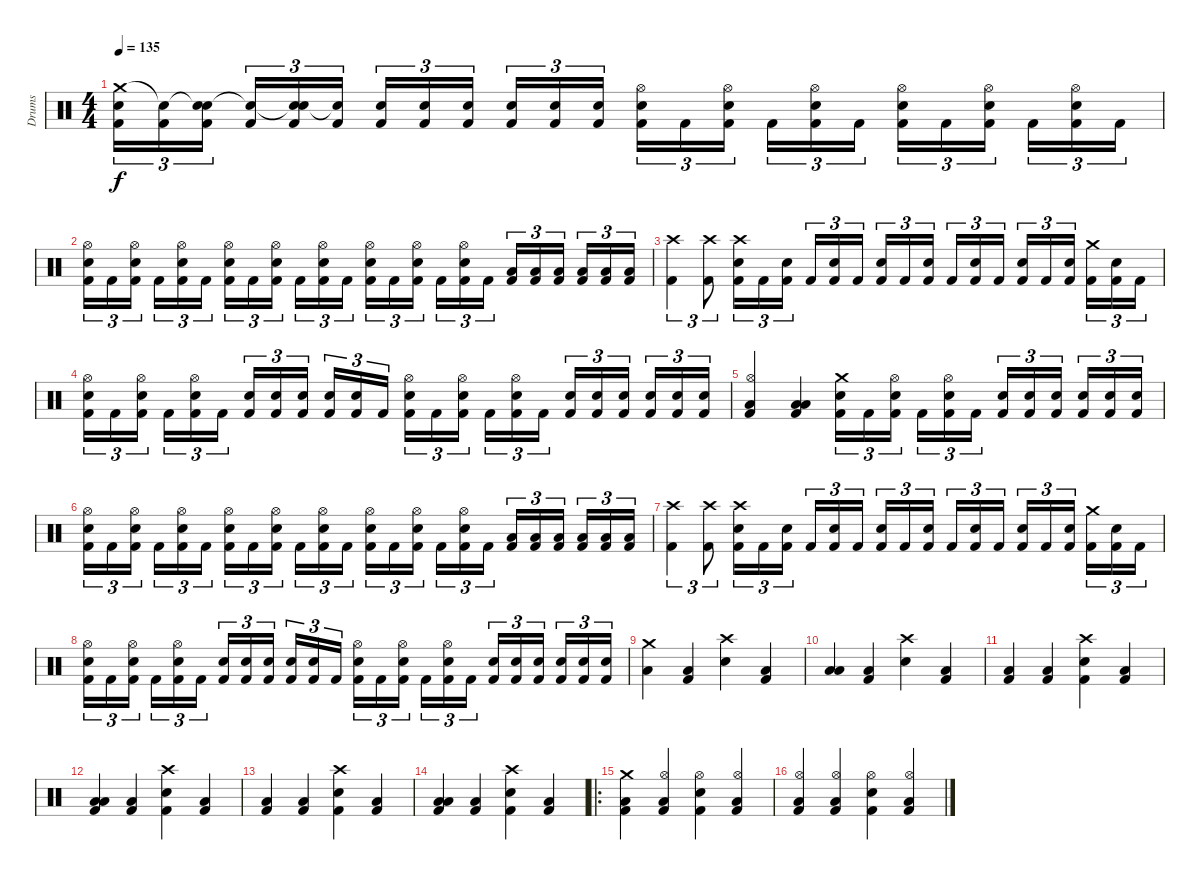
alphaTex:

\track ("Drums" "Drums") {instrument percussion}
\staff {score}
\articulation defaults
\ts (4 4)
\tempo 135
\clef neutral
\ks c
("Crash medium (hit)" "Electric Snare (hit)" "Kick (hit) 2").16{tu (3 2) dy f} ("Snare (hit)"{t} "Kick (hit) 2").16{tu (3 2)} ("Snare (hit)"{t} "Electric Snare (hit)" "Kick (hit) 2").16{tu (3 2)} ("Snare (hit)"{t} "Kick (hit) 2").16{tu (3 2)} ("Snare (hit)"{t} "Electric Snare (hit)" "Kick (hit) 2").16{tu (3 2)} ("Snare (hit)"{t} "Kick (hit) 2").16{tu (3 2)} ("Electric Snare (hit)" "Kick (hit) 2").16{tu (3 2)} ("Electric Snare (hit)" "Kick (hit) 2").16{tu (3 2)} ("Electric Snare (hit)" "Kick (hit) 2").16{tu (3 2)} ("Electric Snare (hit)" "Kick (hit) 2").16{tu (3 2)} ("Electric Snare (hit)" "Kick (hit) 2").16{tu (3 2)} ("Electric Snare (hit)" "Kick (hit) 2").16{tu (3 2)} ("Hi-Hat (open)" "Electric Snare (hit)" "Kick (hit) 2").16{tu (3 2)} "Kick (hit) 2".16{tu (3 2)} ("Hi-Hat (open)" "Electric Snare (hit)" "Kick (hit) 2").16{tu (3 2)} "Kick (hit) 2".16{tu (3 2)} ("Hi-Hat (open)" "Electric Snare (hit)" "Kick (hit) 2").16{tu (3 2)} "Kick (hit) 2".16{tu (3 2)} ("Hi-Hat (open)" "Electric Snare (hit)" "Kick (hit) 2").16{tu (3 2)} "Kick (hit) 2".16{tu (3 2)} ("Hi-Hat (open)" "Electric Snare (hit)" "Kick (hit) 2").16{tu (3 2)} "Kick (hit) 2".16{tu (3 2)} ("Hi-Hat (open)" "Electric Snare (hit)" "Kick (hit) 2").16{tu (3 2)} "Kick (hit) 2".16{tu (3 2)} |
("Hi-Hat (open)" "Electric Snare (hit)" "Kick (hit) 2").16{tu (3 2)} "Kick (hit) 2".16{tu (3 2)} ("Hi-Hat (open)" "Electric Snare (hit)" "Kick (hit) 2").16{tu (3 2)} "Kick (hit) 2".16{tu (3 2)} ("Hi-Hat (open)" "Electric Snare (hit)" "Kick (hit) 2").16{tu (3 2)} "Kick (hit) 2".16{tu (3 2)} ("Hi-Hat (open)" "Electric Snare (hit)" "Kick (hit) 2").16{tu (3 2)} "Kick (hit) 2".16{tu (3 2)} ("Hi-Hat (open)" "Electric Snare (hit)" "Kick (hit) 2").16{tu (3 2)} "Kick (hit) 2".16{tu (3 2)} ("Hi-Hat (open)" "Electric Snare (hit)" "Kick (hit) 2").16{tu (3 2)} "Kick (hit) 2".16{tu (3 2)} ("Hi-Hat (open)" "Electric Snare (hit)" "Kick (hit) 2").16{tu (3 2)} "Kick (hit) 2".16{tu (3 2)} ("Hi-Hat (open)" "Electric Snare (hit)" "Kick (hit) 2").16{tu (3 2)} "Kick (hit) 2".16{tu (3 2)} ("Hi-Hat (open)" "Electric Snare (hit)" "Kick (hit) 2").16{tu (3 2)} "Kick (hit) 2".16{tu (3 2)} ("Low Floor Tom (hit)" "Kick (hit) 2").16{tu (3 2)} ("Low Floor Tom (hit)" "Kick (hit) 2").16{tu (3 2)} ("Low Floor Tom (hit)" "Kick (hit) 2").16{tu (3 2)} ("Low Floor Tom (hit)" "Kick (hit) 2").16{tu (3 2)} ("Low Floor Tom (hit)" "Kick (hit) 2").16{tu (3 2)} ("Low Floor Tom (hit)" "Kick (hit) 2").16{tu (3 2)} |
("Crash high (hit)" "Kick (hit) 2").4{tu (3 2)} ("Crash high (hit)" "Kick (hit) 2").8{tu (3 2)} ("Crash high (hit)" "Electric Snare (hit)" "Kick (hit) 2").16{tu (3 2)} "Kick (hit) 2".16{tu (3 2)} ("Electric Snare (hit)" "Kick (hit) 2").16{tu (3 2)} "Kick (hit) 2".16{tu (3 2)} ("Electric Snare (hit)" "Kick (hit) 2").16{tu (3 2)} "Kick (hit) 2".16{tu (3 2)} ("Electric Snare (hit)" "Kick (hit) 2").16{tu (3 2)} "Kick (hit) 2".16{tu (3 2)} ("Electric Snare (hit)" "Kick (hit) 2").16{tu (3 2)} "Kick (hit) 2".16{tu (3 2)} ("Electric Snare (hit)" "Kick (hit) 2").16{tu (3 2)} "Kick (hit) 2".16{tu (3 2)} ("Electric Snare (hit)" "Kick (hit) 2").16{tu (3 2)} "Kick (hit) 2".16{tu (3 2)} ("Electric Snare (hit)" "Kick (hit) 2").16{tu (3 2)} ("Crash medium (hit)" "Kick (hit) 2").16{tu (3 2)} ("Electric Snare (hit)" "Kick (hit) 2").16{tu (3 2)} "Kick (hit) 2".16{tu (3 2)} |
("Hi-Hat (open)" "Electric Snare (hit)" "Kick (hit) 2").16{tu (3 2)} "Kick (hit) 2".16{tu (3 2)} ("Hi-Hat (open)" "Electric Snare (hit)" "Kick (hit) 2").16{tu (3 2)} "Kick (hit) 2".16{tu (3 2)} ("Hi-Hat (open)" "Electric Snare (hit)" "Kick (hit) 2").16{tu (3 2)} "Kick (hit) 2".16{tu (3 2)} ("Electric Snare (hit)" "Kick (hit) 2").16{tu (3 2)} ("Electric Snare (hit)" "Kick (hit) 2").16{tu (3 2)} ("Electric Snare (hit)" "Kick (hit) 2").16{tu (3 2)} ("Electric Snare (hit)" "Kick (hit) 2").16{tu (3 2)} ("Electric Snare (hit)" "Kick (hit) 2").16{tu (3 2)} "Kick (hit) 2".16{tu (3 2)} ("Hi-Hat (open)" "Electric Snare (hit)" "Kick (hit) 2").16{tu (3 2)} "Kick (hit) 2".16{tu (3 2)} ("Hi-Hat (open)" "Electric Snare (hit)" "Kick (hit) 2").16{tu (3 2)} "Kick (hit) 2".16{tu (3 2)} ("Hi-Hat (open)" "Electric Snare (hit)" "Kick (hit) 2").16{tu (3 2)} "Kick (hit) 2".16{tu (3 2)} ("Electric Snare (hit)" "Kick (hit) 2").16{tu (3 2)} ("Electric Snare (hit)" "Kick (hit) 2").16{tu (3 2)} ("Electric Snare (hit)" "Kick (hit) 2").16{tu (3 2)} ("Electric Snare (hit)" "Kick (hit) 2").16{tu (3 2)} ("Electric Snare (hit)" "Kick (hit) 2").16{tu (3 2)} ("Electric Snare (hit)" "Kick (hit) 2").16{tu (3 2)} |
("Hi-Hat (open)" "Low Floor Tom (hit)" "Kick (hit) 2").4 ("Low Floor Tom (hit)" "Low Floor Tom (hit)" "Kick (hit) 2").4 ("Crash medium (hit)" "Electric Snare (hit)" "Kick (hit) 2").16{tu (3 2)} "Kick (hit) 2".16{tu (3 2)} ("Hi-Hat (open)" "Electric Snare (hit)" "Kick (hit) 2").16{tu (3 2)} "Kick (hit) 2".16{tu (3 2)} ("Hi-Hat (open)" "Electric Snare (hit)" "Kick (hit) 2").16{tu (3 2)} "Kick (hit) 2".16{tu (3 2)} ("Electric Snare (hit)" "Kick (hit) 2").16{tu (3 2)} ("Electric Snare (hit)" "Kick (hit) 2").16{tu (3 2)} ("Electric Snare (hit)" "Kick (hit) 2").16{tu (3 2)} ("Electric Snare (hit)" "Kick (hit) 2").16{tu (3 2)} ("Electric Snare (hit)" "Kick (hit) 2").16{tu (3 2)} ("Electric Snare (hit)" "Kick (hit) 2").16{tu (3 2)} |
("Hi-Hat (open)" "Electric Snare (hit)" "Kick (hit) 2").16{tu (3 2)} "Kick (hit) 2".16{tu (3 2)} ("Hi-Hat (open)" "Electric Snare (hit)" "Kick (hit) 2").16{tu (3 2)} "Kick (hit) 2".16{tu (3 2)} ("Hi-Hat (open)" "Electric Snare (hit)" "Kick (hit) 2").16{tu (3 2)} "Kick (hit) 2".16{tu (3 2)} ("Hi-Hat (open)" "Electric Snare (hit)" "Kick (hit) 2").16{tu (3 2)} "Kick (hit) 2".16{tu (3 2)} ("Hi-Hat (open)" "Electric Snare (hit)" "Kick (hit) 2").16{tu (3 2)} "Kick (hit) 2".16{tu (3 2)} ("Hi-Hat (open)" "Electric Snare (hit)" "Kick (hit) 2").16{tu (3 2)} "Kick (hit) 2".16{tu (3 2)} ("Hi-Hat (open)" "Electric Snare (hit)" "Kick (hit) 2").16{tu (3 2)} "Kick (hit) 2".16{tu (3 2)} ("Hi-Hat (open)" "Electric Snare (hit)" "Kick (hit) 2").16{tu (3 2)} "Kick (hit) 2".16{tu (3 2)} ("Hi-Hat (open)" "Electric Snare (hit)" "Kick (hit) 2").16{tu (3 2)} "Kick (hit) 2".16{tu (3 2)} ("Low Floor Tom (hit)" "Kick (hit) 2").16{tu (3 2)} ("Low Floor Tom (hit)" "Kick (hit) 2").16{tu (3 2)} ("Low Floor Tom (hit)" "Kick (hit) 2").16{tu (3 2)} ("Low Floor Tom (hit)" "Kick (hit) 2").16{tu (3 2)} ("Low Floor Tom (hit)" "Kick (hit) 2").16{tu (3 2)} ("Low Floor Tom (hit)" "Kick (hit) 2").16{tu (3 2)} |
("Crash high (hit)" "Kick (hit) 2").4{tu (3 2)} ("Crash high (hit)" "Kick (hit) 2").8{tu (3 2)} ("Crash high (hit)" "Electric Snare (hit)" "Kick (hit) 2").16{tu (3 2)} "Kick (hit) 2".16{tu (3 2)} ("Electric Snare (hit)" "Kick (hit) 2").16{tu (3 2)} "Kick (hit) 2".16{tu (3 2)} ("Electric Snare (hit)" "Kick (hit) 2").16{tu (3 2)} "Kick (hit) 2".16{tu (3 2)} ("Electric Snare (hit)" "Kick (hit) 2").16{tu (3 2)} "Kick (hit) 2".16{tu (3 2)} ("Electric Snare (hit)" "Kick (hit) 2").16{tu (3 2)} "Kick (hit) 2".16{tu (3 2)} ("Electric Snare (hit)" "Kick (hit) 2").16{tu (3 2)} "Kick (hit) 2".16{tu (3 2)} ("Electric Snare (hit)" "Kick (hit) 2").16{tu (3 2)} "Kick (hit) 2".16{tu (3 2)} ("Electric Snare (hit)" "Kick (hit) 2").16{tu (3 2)} ("Crash medium (hit)" "Kick (hit) 2").16{tu (3 2)} ("Electric Snare (hit)" "Kick (hit) 2").16{tu (3 2)} "Kick (hit) 2".16{tu (3 2)} |
("Hi-Hat (open)" "Electric Snare (hit)" "Kick (hit) 2").16{tu (3 2)} "Kick (hit) 2".16{tu (3 2)} ("Hi-Hat (open)" "Electric Snare (hit)" "Kick (hit) 2").16{tu (3 2)} "Kick (hit) 2".16{tu (3 2)} ("Hi-Hat (open)" "Electric Snare (hit)" "Kick (hit) 2").16{tu (3 2)} "Kick (hit) 2".16{tu (3 2)} ("Electric Snare (hit)" "Kick (hit) 2").16{tu (3 2)} ("Electric Snare (hit)" "Kick (hit) 2").16{tu (3 2)} ("Electric Snare (hit)" "Kick (hit) 2").16{tu (3 2)} ("Electric Snare (hit)" "Kick (hit) 2").16{tu (3 2)} ("Electric Snare (hit)" "Kick (hit) 2").16{tu (3 2)} "Kick (hit) 2".16{tu (3 2)} ("Hi-Hat (open)" "Electric Snare (hit)" "Kick (hit) 2").16{tu (3 2)} "Kick (hit) 2".16{tu (3 2)} ("Hi-Hat (open)" "Electric Snare (hit)" "Kick (hit) 2").16{tu (3 2)} "Kick (hit) 2".16{tu (3 2)} ("Hi-Hat (open)" "Electric Snare (hit)" "Kick (hit) 2").16{tu (3 2)} "Kick (hit) 2".16{tu (3 2)} ("Electric Snare (hit)" "Kick (hit) 2").16{tu (3 2)} ("Electric Snare (hit)" "Kick (hit) 2").16{tu (3 2)} ("Electric Snare (hit)" "Kick (hit) 2").16{tu (3 2)} ("Electric Snare (hit)" "Kick (hit) 2").16{tu (3 2)} ("Electric Snare (hit)" "Kick (hit) 2").16{tu (3 2)} ("Electric Snare (hit)" "Kick (hit) 2").16{tu (3 2)} |
("Crash medium (hit)" "Low Floor Tom (hit)").4 ("Low Floor Tom (hit)" "Kick (hit) 2").4 ("Crash high (hit)" "Electric Snare (hit)").4 ("Low Floor Tom (hit)" "Kick (hit) 2").4 |
("Low Floor Tom (hit)" "Low Floor Tom (hit)").4 ("Low Floor Tom (hit)" "Kick (hit) 2").4 ("Crash high (hit)" "Electric Snare (hit)").4 ("Low Floor Tom (hit)" "Kick (hit) 2").4 |
("Low Floor Tom (hit)" "Kick (hit) 2").4 ("Low Floor Tom (hit)" "Kick (hit) 2").4 ("Crash high (hit)" "Electric Snare (hit)" "Kick (hit) 2").4 ("Low Floor Tom (hit)" "Kick (hit) 2").4 |
("Low Floor Tom (hit)" "Low Floor Tom (hit)" "Kick (hit) 2").4 ("Low Floor Tom (hit)" "Kick (hit) 2").4 ("Crash high (hit)" "Electric Snare (hit)" "Kick (hit) 2").4 ("Low Floor Tom (hit)" "Kick (hit) 2").4 |
("Low Floor Tom (hit)" "Kick (hit) 2").4 ("Low Floor Tom (hit)" "Kick (hit) 2").4 ("Crash high (hit)" "Electric Snare (hit)" "Kick (hit) 2").4 ("Low Floor Tom (hit)" "Kick (hit) 2").4 |
("Low Floor Tom (hit)" "Low Floor Tom (hit)" "Kick (hit) 2").4 ("Low Floor Tom (hit)" "Kick (hit) 2").4 ("Crash high (hit)" "Electric Snare (hit)" "Kick (hit) 2").4 ("Low Floor Tom (hit)" "Kick (hit) 2").4 |
\ro
("Crash medium (hit)" "Low Floor Tom (hit)" "Kick (hit) 2").4 ("Hi-Hat (open)" "Low Floor Tom (hit)" "Kick (hit) 2").4 ("Hi-Hat (open)" "Electric Snare (hit)" "Kick (hit) 2").4 ("Hi-Hat (open)" "Low Floor Tom (hit)" "Kick (hit) 2").4 |
("Hi-Hat (open)" "Low Floor Tom (hit)" "Kick (hit) 2").4 ("Hi-Hat (open)" "Low Floor Tom (hit)" "Kick (hit) 2").4 ("Hi-Hat (open)" "Electric Snare (hit)" "Kick (hit) 2").4 ("Hi-Hat (open)" "Low Floor Tom (hit)" "Kick (hit) 2").4
